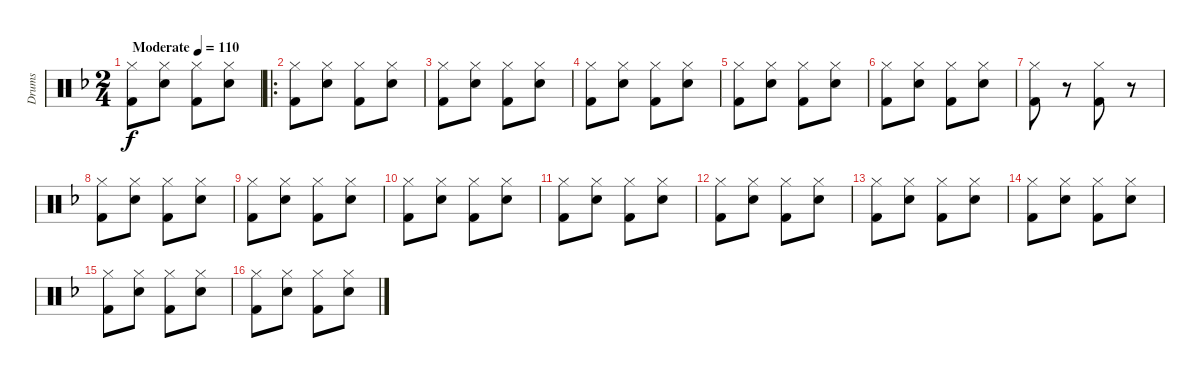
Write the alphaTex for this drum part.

\track ("Drums" "Drums") {instrument percussion}
\staff {score}
\articulation defaults
\ts (2 4)
\tempo (110 "Moderate")
\clef neutral
\ks dminor
("Hi-Hat (closed)" "Kick (hit) 2").8{dy f} ("Hi-Hat (closed)" "Electric Snare (hit)").8 ("Hi-Hat (closed)" "Kick (hit) 2").8 ("Hi-Hat (closed)" "Electric Snare (hit)").8 |
\ro
("Hi-Hat (closed)" "Kick (hit) 2").8 ("Hi-Hat (closed)" "Electric Snare (hit)").8 ("Hi-Hat (closed)" "Kick (hit) 2").8 ("Hi-Hat (closed)" "Electric Snare (hit)").8 |
("Hi-Hat (closed)" "Kick (hit) 2").8 ("Hi-Hat (closed)" "Electric Snare (hit)").8 ("Hi-Hat (closed)" "Kick (hit) 2").8 ("Hi-Hat (closed)" "Electric Snare (hit)").8 |
("Hi-Hat (closed)" "Kick (hit) 2").8 ("Hi-Hat (closed)" "Electric Snare (hit)").8 ("Hi-Hat (closed)" "Kick (hit) 2").8 ("Hi-Hat (closed)" "Electric Snare (hit)").8 |
("Hi-Hat (closed)" "Kick (hit) 2").8 ("Hi-Hat (closed)" "Electric Snare (hit)").8 ("Hi-Hat (closed)" "Kick (hit) 2").8 ("Hi-Hat (closed)" "Electric Snare (hit)").8 |
("Hi-Hat (closed)" "Kick (hit) 2").8 ("Hi-Hat (closed)" "Electric Snare (hit)").8 ("Hi-Hat (closed)" "Kick (hit) 2").8 ("Hi-Hat (closed)" "Electric Snare (hit)").8 |
("Hi-Hat (closed)" "Kick (hit) 2").8 r.8 ("Hi-Hat (closed)" "Kick (hit) 2").8 r.8 |
("Hi-Hat (closed)" "Kick (hit) 2").8 ("Hi-Hat (closed)" "Electric Snare (hit)").8 ("Hi-Hat (closed)" "Kick (hit) 2").8 ("Hi-Hat (closed)" "Electric Snare (hit)").8 |
("Hi-Hat (closed)" "Kick (hit) 2").8 ("Hi-Hat (closed)" "Electric Snare (hit)").8 ("Hi-Hat (closed)" "Kick (hit) 2").8 ("Hi-Hat (closed)" "Electric Snare (hit)").8 |
("Hi-Hat (closed)" "Kick (hit) 2").8 ("Hi-Hat (closed)" "Electric Snare (hit)").8 ("Hi-Hat (closed)" "Kick (hit) 2").8 ("Hi-Hat (closed)" "Electric Snare (hit)").8 |
("Hi-Hat (closed)" "Kick (hit) 2").8 ("Hi-Hat (closed)" "Electric Snare (hit)").8 ("Hi-Hat (closed)" "Kick (hit) 2").8 ("Hi-Hat (closed)" "Electric Snare (hit)").8 |
("Hi-Hat (closed)" "Kick (hit) 2").8 ("Hi-Hat (closed)" "Electric Snare (hit)").8 ("Hi-Hat (closed)" "Kick (hit) 2").8 ("Hi-Hat (closed)" "Electric Snare (hit)").8 |
("Hi-Hat (closed)" "Kick (hit) 2").8 ("Hi-Hat (closed)" "Electric Snare (hit)").8 ("Hi-Hat (closed)" "Kick (hit) 2").8 ("Hi-Hat (closed)" "Electric Snare (hit)").8 |
("Hi-Hat (closed)" "Kick (hit) 2").8 ("Hi-Hat (closed)" "Electric Snare (hit)").8 ("Hi-Hat (closed)" "Kick (hit) 2").8 ("Hi-Hat (closed)" "Electric Snare (hit)").8 |
("Hi-Hat (closed)" "Kick (hit) 2").8 ("Hi-Hat (closed)" "Electric Snare (hit)").8 ("Hi-Hat (closed)" "Kick (hit) 2").8 ("Hi-Hat (closed)" "Electric Snare (hit)").8 |
("Hi-Hat (closed)" "Kick (hit) 2").8 ("Hi-Hat (closed)" "Electric Snare (hit)").8 ("Hi-Hat (closed)" "Kick (hit) 2").8 ("Hi-Hat (closed)" "Electric Snare (hit)").8
